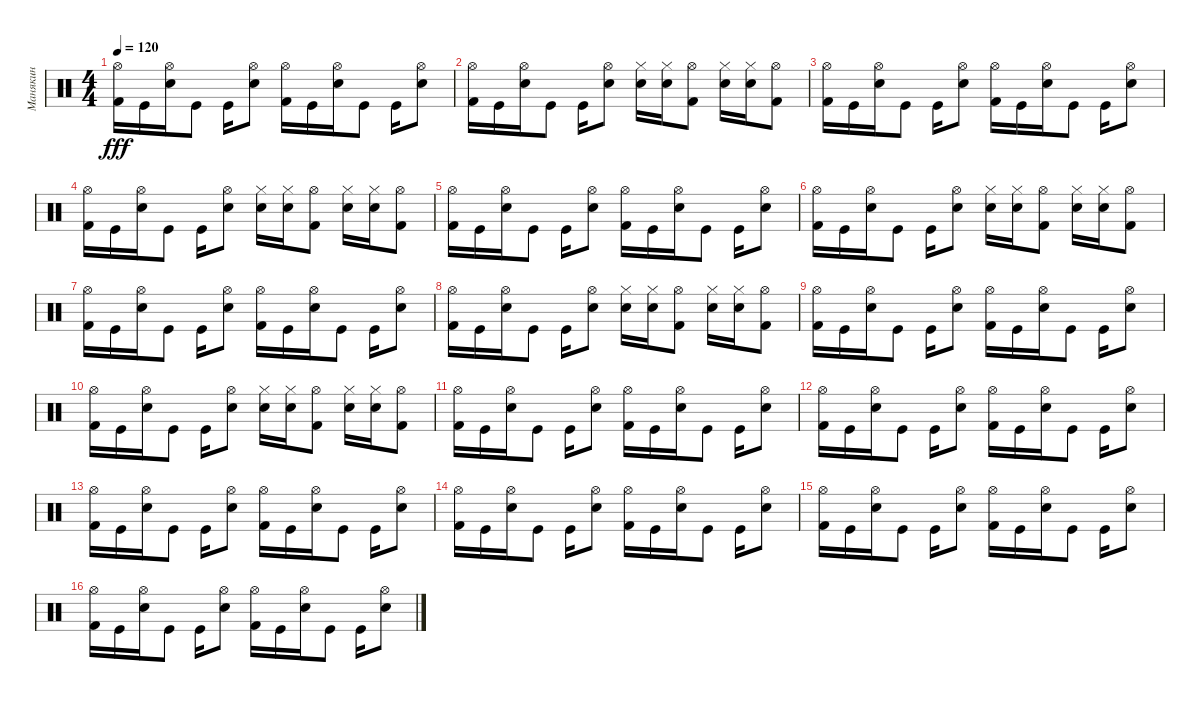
\track ("Манякин" "Манякин") {instrument percussion}
\staff {score}
\articulation defaults
\ts (4 4)
\tempo 120
\clef neutral
\ks c
("Hi-Hat (open)" "Kick (hit) 2").16{dy fff} "Kick (hit)".16 ("Hi-Hat (open)" "Snare (hit) 2").16 "Kick (hit)".8 "Kick (hit)".16 ("Hi-Hat (open)" "Snare (hit) 2").8 ("Kick (hit) 2" "Hi-Hat (open)").16 "Kick (hit)".16 ("Hi-Hat (open)" "Snare (hit) 2").16 "Kick (hit)".8 "Kick (hit)".16 ("Hi-Hat (open)" "Snare (hit) 2").8 |
("Hi-Hat (open)" "Kick (hit) 2").16 "Kick (hit)".16 ("Hi-Hat (open)" "Snare (hit) 2").16 "Kick (hit)".8 "Kick (hit)".16 ("Hi-Hat (open)" "Snare (hit) 2").8 ("Hi-Hat (closed)" "Snare (hit) 2").16 ("Hi-Hat (closed)" "Snare (hit) 2").16 ("Hi-Hat (open)" "Kick (hit) 2").8 ("Hi-Hat (closed)" "Snare (hit) 2").16 ("Hi-Hat (closed)" "Snare (hit) 2").16 ("Hi-Hat (open)" "Kick (hit) 2").8 |
("Hi-Hat (open)" "Kick (hit) 2").16 "Kick (hit)".16 ("Hi-Hat (open)" "Snare (hit) 2").16 "Kick (hit)".8 "Kick (hit)".16 ("Hi-Hat (open)" "Snare (hit) 2").8 ("Kick (hit) 2" "Hi-Hat (open)").16 "Kick (hit)".16 ("Hi-Hat (open)" "Snare (hit) 2").16 "Kick (hit)".8 "Kick (hit)".16 ("Hi-Hat (open)" "Snare (hit) 2").8 |
("Hi-Hat (open)" "Kick (hit) 2").16 "Kick (hit)".16 ("Hi-Hat (open)" "Snare (hit) 2").16 "Kick (hit)".8 "Kick (hit)".16 ("Hi-Hat (open)" "Snare (hit) 2").8 ("Hi-Hat (closed)" "Snare (hit) 2").16 ("Hi-Hat (closed)" "Snare (hit) 2").16 ("Hi-Hat (open)" "Kick (hit) 2").8 ("Hi-Hat (closed)" "Snare (hit) 2").16 ("Hi-Hat (closed)" "Snare (hit) 2").16 ("Hi-Hat (open)" "Kick (hit) 2").8 |
("Hi-Hat (open)" "Kick (hit) 2").16 "Kick (hit)".16 ("Hi-Hat (open)" "Snare (hit) 2").16 "Kick (hit)".8 "Kick (hit)".16 ("Hi-Hat (open)" "Snare (hit) 2").8 ("Kick (hit) 2" "Hi-Hat (open)").16 "Kick (hit)".16 ("Hi-Hat (open)" "Snare (hit) 2").16 "Kick (hit)".8 "Kick (hit)".16 ("Hi-Hat (open)" "Snare (hit) 2").8 |
("Hi-Hat (open)" "Kick (hit) 2").16 "Kick (hit)".16 ("Hi-Hat (open)" "Snare (hit) 2").16 "Kick (hit)".8 "Kick (hit)".16 ("Hi-Hat (open)" "Snare (hit) 2").8 ("Hi-Hat (closed)" "Snare (hit) 2").16 ("Hi-Hat (closed)" "Snare (hit) 2").16 ("Hi-Hat (open)" "Kick (hit) 2").8 ("Hi-Hat (closed)" "Snare (hit) 2").16 ("Hi-Hat (closed)" "Snare (hit) 2").16 ("Hi-Hat (open)" "Kick (hit) 2").8 |
("Hi-Hat (open)" "Kick (hit) 2").16 "Kick (hit)".16 ("Hi-Hat (open)" "Snare (hit) 2").16 "Kick (hit)".8 "Kick (hit)".16 ("Hi-Hat (open)" "Snare (hit) 2").8 ("Kick (hit) 2" "Hi-Hat (open)").16 "Kick (hit)".16 ("Hi-Hat (open)" "Snare (hit) 2").16 "Kick (hit)".8 "Kick (hit)".16 ("Hi-Hat (open)" "Snare (hit) 2").8 |
("Hi-Hat (open)" "Kick (hit) 2").16 "Kick (hit)".16 ("Hi-Hat (open)" "Snare (hit) 2").16 "Kick (hit)".8 "Kick (hit)".16 ("Hi-Hat (open)" "Snare (hit) 2").8 ("Hi-Hat (closed)" "Snare (hit) 2").16 ("Hi-Hat (closed)" "Snare (hit) 2").16 ("Hi-Hat (open)" "Kick (hit) 2").8 ("Hi-Hat (closed)" "Snare (hit) 2").16 ("Hi-Hat (closed)" "Snare (hit) 2").16 ("Hi-Hat (open)" "Kick (hit) 2").8 |
("Hi-Hat (open)" "Kick (hit) 2").16 "Kick (hit)".16 ("Hi-Hat (open)" "Snare (hit) 2").16 "Kick (hit)".8 "Kick (hit)".16 ("Hi-Hat (open)" "Snare (hit) 2").8 ("Kick (hit) 2" "Hi-Hat (open)").16 "Kick (hit)".16 ("Hi-Hat (open)" "Snare (hit) 2").16 "Kick (hit)".8 "Kick (hit)".16 ("Hi-Hat (open)" "Snare (hit) 2").8 |
("Hi-Hat (open)" "Kick (hit) 2").16 "Kick (hit)".16 ("Hi-Hat (open)" "Snare (hit) 2").16 "Kick (hit)".8 "Kick (hit)".16 ("Hi-Hat (open)" "Snare (hit) 2").8 ("Hi-Hat (closed)" "Snare (hit) 2").16 ("Hi-Hat (closed)" "Snare (hit) 2").16 ("Hi-Hat (open)" "Kick (hit) 2").8 ("Hi-Hat (closed)" "Snare (hit) 2").16 ("Hi-Hat (closed)" "Snare (hit) 2").16 ("Hi-Hat (open)" "Kick (hit) 2").8 |
("Hi-Hat (open)" "Kick (hit) 2").16 "Kick (hit)".16 ("Hi-Hat (open)" "Snare (hit) 2").16 "Kick (hit)".8 "Kick (hit)".16 ("Hi-Hat (open)" "Snare (hit) 2").8 ("Kick (hit) 2" "Hi-Hat (open)").16 "Kick (hit)".16 ("Hi-Hat (open)" "Snare (hit) 2").16 "Kick (hit)".8 "Kick (hit)".16 ("Hi-Hat (open)" "Snare (hit) 2").8 |
("Hi-Hat (open)" "Kick (hit) 2").16 "Kick (hit)".16 ("Hi-Hat (open)" "Snare (hit) 2").16 "Kick (hit)".8 "Kick (hit)".16 ("Hi-Hat (open)" "Snare (hit) 2").8 ("Kick (hit) 2" "Hi-Hat (open)").16 "Kick (hit)".16 ("Hi-Hat (open)" "Snare (hit) 2").16 "Kick (hit)".8 "Kick (hit)".16 ("Hi-Hat (open)" "Snare (hit) 2").8 |
("Hi-Hat (open)" "Kick (hit) 2").16 "Kick (hit)".16 ("Hi-Hat (open)" "Snare (hit) 2").16 "Kick (hit)".8 "Kick (hit)".16 ("Hi-Hat (open)" "Snare (hit) 2").8 ("Kick (hit) 2" "Hi-Hat (open)").16 "Kick (hit)".16 ("Hi-Hat (open)" "Snare (hit) 2").16 "Kick (hit)".8 "Kick (hit)".16 ("Hi-Hat (open)" "Snare (hit) 2").8 |
("Hi-Hat (open)" "Kick (hit) 2").16 "Kick (hit)".16 ("Hi-Hat (open)" "Snare (hit) 2").16 "Kick (hit)".8 "Kick (hit)".16 ("Hi-Hat (open)" "Snare (hit) 2").8 ("Kick (hit) 2" "Hi-Hat (open)").16 "Kick (hit)".16 ("Hi-Hat (open)" "Snare (hit) 2").16 "Kick (hit)".8 "Kick (hit)".16 ("Hi-Hat (open)" "Snare (hit) 2").8 |
("Hi-Hat (open)" "Kick (hit) 2").16 "Kick (hit)".16 ("Hi-Hat (open)" "Snare (hit) 2").16 "Kick (hit)".8 "Kick (hit)".16 ("Hi-Hat (open)" "Snare (hit) 2").8 ("Kick (hit) 2" "Hi-Hat (open)").16 "Kick (hit)".16 ("Hi-Hat (open)" "Snare (hit) 2").16 "Kick (hit)".8 "Kick (hit)".16 ("Hi-Hat (open)" "Snare (hit) 2").8 |
("Hi-Hat (open)" "Kick (hit) 2").16 "Kick (hit)".16 ("Hi-Hat (open)" "Snare (hit) 2").16 "Kick (hit)".8 "Kick (hit)".16 ("Hi-Hat (open)" "Snare (hit) 2").8 ("Kick (hit) 2" "Hi-Hat (open)").16 "Kick (hit)".16 ("Hi-Hat (open)" "Snare (hit) 2").16 "Kick (hit)".8 "Kick (hit)".16 ("Hi-Hat (open)" "Snare (hit) 2").8
